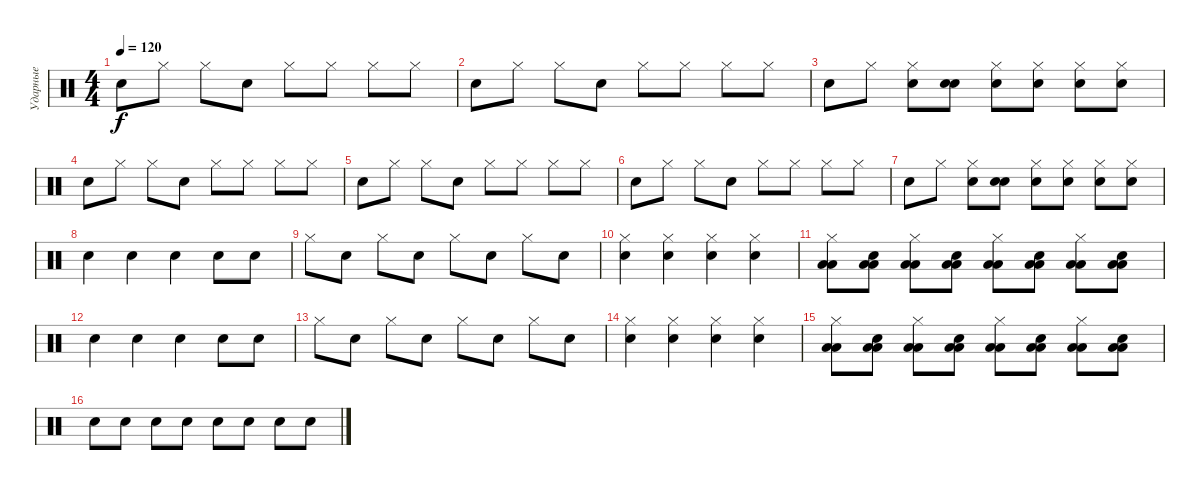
\track ("Ударные" "Ударные") {instrument percussion}
\staff {score}
\articulation defaults
\ts (4 4)
\tempo 120
\clef neutral
\ks c "Electric Snare (hit)".8{dy f} "Hi-Hat (closed)".8 "Hi-Hat (closed)".8 "Electric Snare (hit)".8 "Hi-Hat (closed)".8 "Hi-Hat (closed)".8 "Hi-Hat (closed)".8 "Hi-Hat (closed)".8
|
"Electric Snare (hit)".8 "Hi-Hat (closed)".8 "Hi-Hat (closed)".8 "Electric Snare (hit)".8 "Hi-Hat (closed)".8 "Hi-Hat (closed)".8 "Hi-Hat (closed)".8 "Hi-Hat (closed)".8 |
"Electric Snare (hit)".8 "Hi-Hat (closed)".8 ("Hi-Hat (closed)" "Electric Snare (hit)").8 ("Electric Snare (hit)" "Electric Snare (hit)").8 ("Hi-Hat (closed)" "Electric Snare (hit)").8 ("Hi-Hat (closed)" "Electric Snare (hit)").8 ("Hi-Hat (closed)" "Electric Snare (hit)").8 ("Hi-Hat (closed)" "Electric Snare (hit)").8 |
"Electric Snare (hit)".8 "Hi-Hat (closed)".8 "Hi-Hat (closed)".8 "Electric Snare (hit)".8 "Hi-Hat (closed)".8 "Hi-Hat (closed)".8 "Hi-Hat (closed)".8 "Hi-Hat (closed)".8 |
"Electric Snare (hit)".8 "Hi-Hat (closed)".8 "Hi-Hat (closed)".8 "Electric Snare (hit)".8 "Hi-Hat (closed)".8 "Hi-Hat (closed)".8 "Hi-Hat (closed)".8 "Hi-Hat (closed)".8 |
"Electric Snare (hit)".8 "Hi-Hat (closed)".8 "Hi-Hat (closed)".8 "Electric Snare (hit)".8 "Hi-Hat (closed)".8 "Hi-Hat (closed)".8 "Hi-Hat (closed)".8 "Hi-Hat (closed)".8 |
"Electric Snare (hit)".8 "Hi-Hat (closed)".8 ("Hi-Hat (closed)" "Electric Snare (hit)").8 ("Electric Snare (hit)" "Electric Snare (hit)").8 ("Hi-Hat (closed)" "Electric Snare (hit)").8 ("Hi-Hat (closed)" "Electric Snare (hit)").8 ("Hi-Hat (closed)" "Electric Snare (hit)").8 ("Hi-Hat (closed)" "Electric Snare (hit)").8 |
"Electric Snare (hit)".4 "Electric Snare (hit)".4 "Electric Snare (hit)".4 "Electric Snare (hit)".8 "Electric Snare (hit)".8 |
"Hi-Hat (closed)".8 "Electric Snare (hit)".8 "Hi-Hat (closed)".8 "Electric Snare (hit)".8 "Hi-Hat (closed)".8 "Electric Snare (hit)".8 "Hi-Hat (closed)".8 "Electric Snare (hit)".8 |
("Electric Snare (hit)" "Hi-Hat (closed)").4 ("Electric Snare (hit)" "Hi-Hat (closed)").4 ("Electric Snare (hit)" "Hi-Hat (closed)").4 ("Electric Snare (hit)" "Hi-Hat (closed)").4 |
("Low Floor Tom (hit)" "Hi-Hat (closed)" "Low Floor Tom (hit)").8 ("Low Floor Tom (hit)" "Electric Snare (hit)" "Low Floor Tom (hit)").8 ("Low Floor Tom (hit)" "Hi-Hat (closed)" "Low Floor Tom (hit)").8 ("Low Floor Tom (hit)" "Electric Snare (hit)" "Low Floor Tom (hit)").8 ("Low Floor Tom (hit)" "Hi-Hat (closed)" "Low Floor Tom (hit)").8 ("Low Floor Tom (hit)" "Electric Snare (hit)" "Low Floor Tom (hit)").8 ("Low Floor Tom (hit)" "Hi-Hat (closed)" "Low Floor Tom (hit)").8 ("Low Floor Tom (hit)" "Electric Snare (hit)" "Low Floor Tom (hit)").8 |
"Electric Snare (hit)".4 "Electric Snare (hit)".4 "Electric Snare (hit)".4 "Electric Snare (hit)".8 "Electric Snare (hit)".8 |
"Hi-Hat (closed)".8 "Electric Snare (hit)".8 "Hi-Hat (closed)".8 "Electric Snare (hit)".8 "Hi-Hat (closed)".8 "Electric Snare (hit)".8 "Hi-Hat (closed)".8 "Electric Snare (hit)".8 |
("Electric Snare (hit)" "Hi-Hat (closed)").4 ("Electric Snare (hit)" "Hi-Hat (closed)").4 ("Electric Snare (hit)" "Hi-Hat (closed)").4 ("Electric Snare (hit)" "Hi-Hat (closed)").4 |
("Low Floor Tom (hit)" "Hi-Hat (closed)" "Low Floor Tom (hit)").8 ("Low Floor Tom (hit)" "Electric Snare (hit)" "Low Floor Tom (hit)").8 ("Low Floor Tom (hit)" "Hi-Hat (closed)" "Low Floor Tom (hit)").8 ("Low Floor Tom (hit)" "Electric Snare (hit)" "Low Floor Tom (hit)").8 ("Low Floor Tom (hit)" "Hi-Hat (closed)" "Low Floor Tom (hit)").8 ("Low Floor Tom (hit)" "Electric Snare (hit)" "Low Floor Tom (hit)").8 ("Low Floor Tom (hit)" "Hi-Hat (closed)" "Low Floor Tom (hit)").8 ("Low Floor Tom (hit)" "Electric Snare (hit)" "Low Floor Tom (hit)").8 |
"Electric Snare (hit)".8 "Electric Snare (hit)".8 "Electric Snare (hit)".8 "Electric Snare (hit)".8 "Electric Snare (hit)".8 "Electric Snare (hit)".8 "Electric Snare (hit)".8 "Electric Snare (hit)".8
